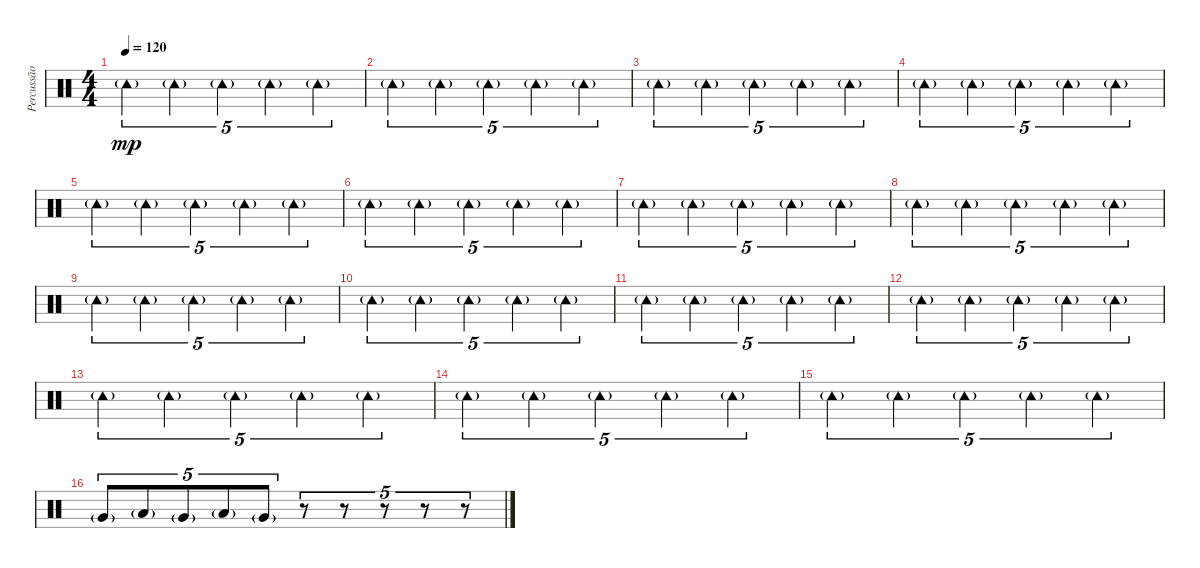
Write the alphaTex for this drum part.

\track ("Percussão" "Percussão") {instrument percussion}
\staff {score}
\articulation defaults
\ts (4 4)
\tempo 120
\clef neutral
\ks c "Tambourine (hit)"{g}.4{tu (5 4) dy mp} "Tambourine (hit)"{g}.4{tu (5 4)} "Tambourine (hit)"{g}.4{tu (5 4)} "Tambourine (hit)"{g}.4{tu (5 4)} "Tambourine (hit)"{g}.4{tu (5 4)}
|
"Tambourine (hit)"{g}.4{tu (5 4)} "Tambourine (hit)"{g}.4{tu (5 4)} "Tambourine (hit)"{g}.4{tu (5 4)} "Tambourine (hit)"{g}.4{tu (5 4)} "Tambourine (hit)"{g}.4{tu (5 4)} |
"Tambourine (hit)"{g}.4{tu (5 4)} "Tambourine (hit)"{g}.4{tu (5 4)} "Tambourine (hit)"{g}.4{tu (5 4)} "Tambourine (hit)"{g}.4{tu (5 4)} "Tambourine (hit)"{g}.4{tu (5 4)} |
"Tambourine (hit)"{g}.4{tu (5 4)} "Tambourine (hit)"{g}.4{tu (5 4)} "Tambourine (hit)"{g}.4{tu (5 4)} "Tambourine (hit)"{g}.4{tu (5 4)} "Tambourine (hit)"{g}.4{tu (5 4)} |
"Tambourine (hit)"{g}.4{tu (5 4)} "Tambourine (hit)"{g}.4{tu (5 4)} "Tambourine (hit)"{g}.4{tu (5 4)} "Tambourine (hit)"{g}.4{tu (5 4)} "Tambourine (hit)"{g}.4{tu (5 4)} |
"Tambourine (hit)"{g}.4{tu (5 4)} "Tambourine (hit)"{g}.4{tu (5 4)} "Tambourine (hit)"{g}.4{tu (5 4)} "Tambourine (hit)"{g}.4{tu (5 4)} "Tambourine (hit)"{g}.4{tu (5 4)} |
"Tambourine (hit)"{g}.4{tu (5 4)} "Tambourine (hit)"{g}.4{tu (5 4)} "Tambourine (hit)"{g}.4{tu (5 4)} "Tambourine (hit)"{g}.4{tu (5 4)} "Tambourine (hit)"{g}.4{tu (5 4)} |
"Tambourine (hit)"{g}.4{tu (5 4)} "Tambourine (hit)"{g}.4{tu (5 4)} "Tambourine (hit)"{g}.4{tu (5 4)} "Tambourine (hit)"{g}.4{tu (5 4)} "Tambourine (hit)"{g}.4{tu (5 4)} |
"Tambourine (hit)"{g}.4{tu (5 4)} "Tambourine (hit)"{g}.4{tu (5 4)} "Tambourine (hit)"{g}.4{tu (5 4)} "Tambourine (hit)"{g}.4{tu (5 4)} "Tambourine (hit)"{g}.4{tu (5 4)} |
"Tambourine (hit)"{g}.4{tu (5 4)} "Tambourine (hit)"{g}.4{tu (5 4)} "Tambourine (hit)"{g}.4{tu (5 4)} "Tambourine (hit)"{g}.4{tu (5 4)} "Tambourine (hit)"{g}.4{tu (5 4)} |
"Tambourine (hit)"{g}.4{tu (5 4)} "Tambourine (hit)"{g}.4{tu (5 4)} "Tambourine (hit)"{g}.4{tu (5 4)} "Tambourine (hit)"{g}.4{tu (5 4)} "Tambourine (hit)"{g}.4{tu (5 4)} |
"Tambourine (hit)"{g}.4{tu (5 4)} "Tambourine (hit)"{g}.4{tu (5 4)} "Tambourine (hit)"{g}.4{tu (5 4)} "Tambourine (hit)"{g}.4{tu (5 4)} "Tambourine (hit)"{g}.4{tu (5 4)} |
"Tambourine (hit)"{g}.4{tu (5 4)} "Tambourine (hit)"{g}.4{tu (5 4)} "Tambourine (hit)"{g}.4{tu (5 4)} "Tambourine (hit)"{g}.4{tu (5 4)} "Tambourine (hit)"{g}.4{tu (5 4)} |
"Tambourine (hit)"{g}.4{tu (5 4)} "Tambourine (hit)"{g}.4{tu (5 4)} "Tambourine (hit)"{g}.4{tu (5 4)} "Tambourine (hit)"{g}.4{tu (5 4)} "Tambourine (hit)"{g}.4{tu (5 4)} |
"Tambourine (hit)"{g}.4{tu (5 4)} "Tambourine (hit)"{g}.4{tu (5 4)} "Tambourine (hit)"{g}.4{tu (5 4)} "Tambourine (hit)"{g}.4{tu (5 4)} "Tambourine (hit)"{g}.4{tu (5 4)} |
"Very Low Tom (hit)"{g}.8{tu (5 4)} "Low Tom (hit)"{g}.8{tu (5 4)} "Very Low Tom (hit)"{g}.8{tu (5 4)} "Low Tom (hit)"{g}.8{tu (5 4)} "Very Low Tom (hit)"{g}.8{tu (5 4)} r.8{tu (5 4)} r.8{tu (5 4)} r.8{tu (5 4)} r.8{tu (5 4)} r.8{tu (5 4)}
